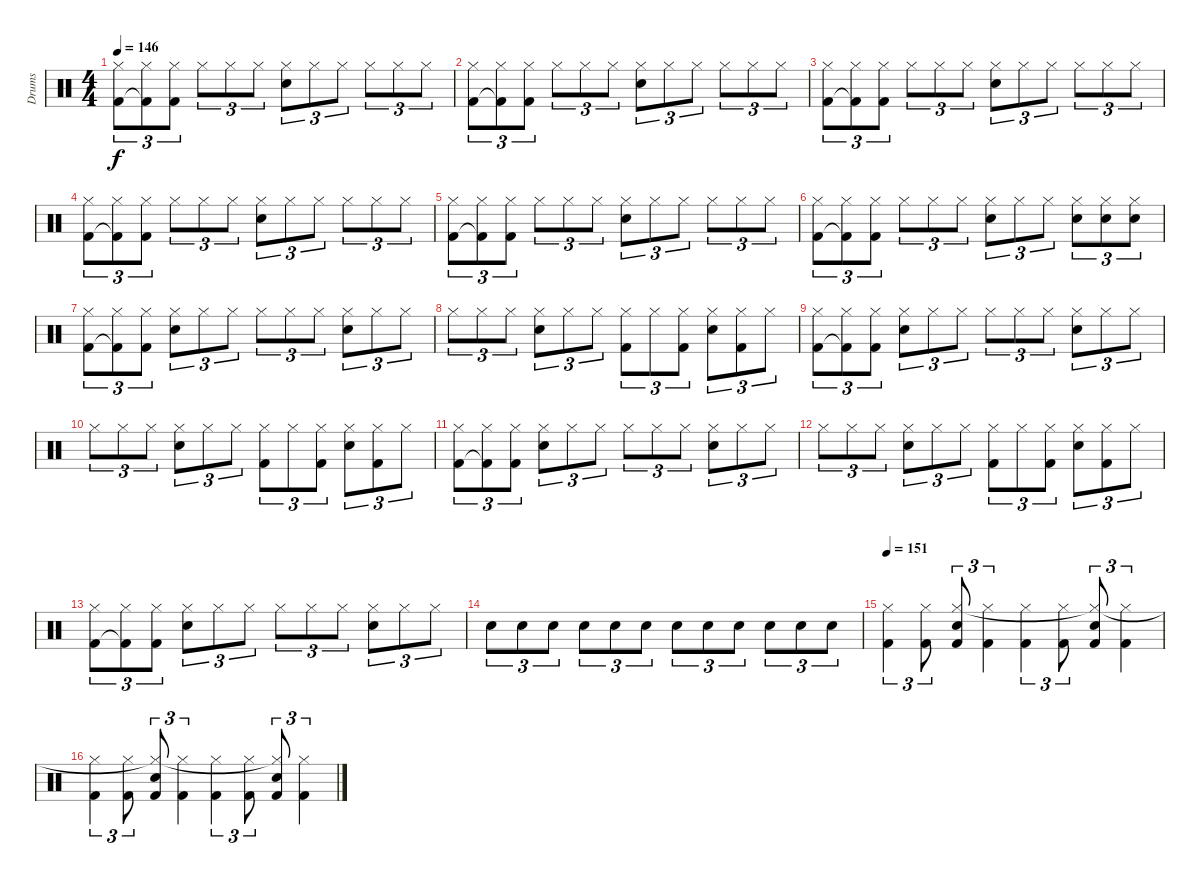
\track ("Drums" "Drums") {instrument percussion}
\staff {score}
\articulation defaults
\ts (4 4)
\tempo 146
\clef neutral
\ks c
("Kick (hit) 2" "Hi-Hat (closed)").8{tu (3 2) dy f} ("Kick (hit) 2"{t} "Hi-Hat (closed)").8{tu (3 2)} ("Kick (hit) 2" "Hi-Hat (closed)").8{tu (3 2)} "Hi-Hat (closed)".8{tu (3 2)} "Hi-Hat (closed)".8{tu (3 2)} "Hi-Hat (closed)".8{tu (3 2)} ("Electric Snare (hit)" "Hi-Hat (closed)").8{tu (3 2)} "Hi-Hat (closed)".8{tu (3 2)} "Hi-Hat (closed)".8{tu (3 2)} "Hi-Hat (closed)".8{tu (3 2)} "Hi-Hat (closed)".8{tu (3 2)} "Hi-Hat (closed)".8{tu (3 2)} |
("Kick (hit) 2" "Hi-Hat (closed)").8{tu (3 2)} ("Kick (hit) 2"{t} "Hi-Hat (closed)").8{tu (3 2)} ("Kick (hit) 2" "Hi-Hat (closed)").8{tu (3 2)} "Hi-Hat (closed)".8{tu (3 2)} "Hi-Hat (closed)".8{tu (3 2)} "Hi-Hat (closed)".8{tu (3 2)} ("Electric Snare (hit)" "Hi-Hat (closed)").8{tu (3 2)} "Hi-Hat (closed)".8{tu (3 2)} "Hi-Hat (closed)".8{tu (3 2)} "Hi-Hat (closed)".8{tu (3 2)} "Hi-Hat (closed)".8{tu (3 2)} "Hi-Hat (closed)".8{tu (3 2)} |
("Kick (hit) 2" "Hi-Hat (closed)").8{tu (3 2)} ("Kick (hit) 2"{t} "Hi-Hat (closed)").8{tu (3 2)} ("Kick (hit) 2" "Hi-Hat (closed)").8{tu (3 2)} "Hi-Hat (closed)".8{tu (3 2)} "Hi-Hat (closed)".8{tu (3 2)} "Hi-Hat (closed)".8{tu (3 2)} ("Electric Snare (hit)" "Hi-Hat (closed)").8{tu (3 2)} "Hi-Hat (closed)".8{tu (3 2)} "Hi-Hat (closed)".8{tu (3 2)} "Hi-Hat (closed)".8{tu (3 2)} "Hi-Hat (closed)".8{tu (3 2)} "Hi-Hat (closed)".8{tu (3 2)} |
("Kick (hit) 2" "Hi-Hat (closed)").8{tu (3 2)} ("Kick (hit) 2"{t} "Hi-Hat (closed)").8{tu (3 2)} ("Kick (hit) 2" "Hi-Hat (closed)").8{tu (3 2)} "Hi-Hat (closed)".8{tu (3 2)} "Hi-Hat (closed)".8{tu (3 2)} "Hi-Hat (closed)".8{tu (3 2)} ("Electric Snare (hit)" "Hi-Hat (closed)").8{tu (3 2)} "Hi-Hat (closed)".8{tu (3 2)} "Hi-Hat (closed)".8{tu (3 2)} "Hi-Hat (closed)".8{tu (3 2)} "Hi-Hat (closed)".8{tu (3 2)} "Hi-Hat (closed)".8{tu (3 2)} |
("Kick (hit) 2" "Hi-Hat (closed)").8{tu (3 2)} ("Kick (hit) 2"{t} "Hi-Hat (closed)").8{tu (3 2)} ("Kick (hit) 2" "Hi-Hat (closed)").8{tu (3 2)} "Hi-Hat (closed)".8{tu (3 2)} "Hi-Hat (closed)".8{tu (3 2)} "Hi-Hat (closed)".8{tu (3 2)} ("Electric Snare (hit)" "Hi-Hat (closed)").8{tu (3 2)} "Hi-Hat (closed)".8{tu (3 2)} "Hi-Hat (closed)".8{tu (3 2)} "Hi-Hat (closed)".8{tu (3 2)} "Hi-Hat (closed)".8{tu (3 2)} "Hi-Hat (closed)".8{tu (3 2)} |
("Kick (hit) 2" "Hi-Hat (closed)").8{tu (3 2)} ("Kick (hit) 2"{t} "Hi-Hat (closed)").8{tu (3 2)} ("Kick (hit) 2" "Hi-Hat (closed)").8{tu (3 2)} "Hi-Hat (closed)".8{tu (3 2)} "Hi-Hat (closed)".8{tu (3 2)} "Hi-Hat (closed)".8{tu (3 2)} ("Electric Snare (hit)" "Hi-Hat (closed)").8{tu (3 2)} "Hi-Hat (closed)".8{tu (3 2)} "Hi-Hat (closed)".8{tu (3 2)} ("Electric Snare (hit)" "Hi-Hat (closed)").8{tu (3 2)} ("Electric Snare (hit)" "Hi-Hat (closed)").8{tu (3 2)} ("Electric Snare (hit)" "Hi-Hat (closed)").8{tu (3 2)} |
("Kick (hit) 2" "Hi-Hat (closed)").8{tu (3 2)} ("Kick (hit) 2"{t} "Hi-Hat (closed)").8{tu (3 2)} ("Kick (hit) 2" "Hi-Hat (closed)").8{tu (3 2)} ("Electric Snare (hit)" "Hi-Hat (closed)").8{tu (3 2)} "Hi-Hat (closed)".8{tu (3 2)} "Hi-Hat (closed)".8{tu (3 2)} "Hi-Hat (closed)".8{tu (3 2)} "Hi-Hat (closed)".8{tu (3 2)} "Hi-Hat (closed)".8{tu (3 2)} ("Electric Snare (hit)" "Hi-Hat (closed)").8{tu (3 2)} "Hi-Hat (closed)".8{tu (3 2)} "Hi-Hat (closed)".8{tu (3 2)} |
"Hi-Hat (closed)".8{tu (3 2)} "Hi-Hat (closed)".8{tu (3 2)} "Hi-Hat (closed)".8{tu (3 2)} ("Electric Snare (hit)" "Hi-Hat (closed)").8{tu (3 2)} "Hi-Hat (closed)".8{tu (3 2)} "Hi-Hat (closed)".8{tu (3 2)} ("Kick (hit) 2" "Hi-Hat (closed)").8{tu (3 2)} "Hi-Hat (closed)".8{tu (3 2)} ("Kick (hit) 2" "Hi-Hat (closed)").8{tu (3 2)} ("Electric Snare (hit)" "Hi-Hat (closed)").8{tu (3 2)} ("Kick (hit) 2" "Hi-Hat (closed)").8{tu (3 2)} "Hi-Hat (closed)".8{tu (3 2)} |
("Kick (hit) 2" "Hi-Hat (closed)").8{tu (3 2)} ("Kick (hit) 2"{t} "Hi-Hat (closed)").8{tu (3 2)} ("Kick (hit) 2" "Hi-Hat (closed)").8{tu (3 2)} ("Electric Snare (hit)" "Hi-Hat (closed)").8{tu (3 2)} "Hi-Hat (closed)".8{tu (3 2)} "Hi-Hat (closed)".8{tu (3 2)} "Hi-Hat (closed)".8{tu (3 2)} "Hi-Hat (closed)".8{tu (3 2)} "Hi-Hat (closed)".8{tu (3 2)} ("Electric Snare (hit)" "Hi-Hat (closed)").8{tu (3 2)} "Hi-Hat (closed)".8{tu (3 2)} "Hi-Hat (closed)".8{tu (3 2)} |
"Hi-Hat (closed)".8{tu (3 2)} "Hi-Hat (closed)".8{tu (3 2)} "Hi-Hat (closed)".8{tu (3 2)} ("Electric Snare (hit)" "Hi-Hat (closed)").8{tu (3 2)} "Hi-Hat (closed)".8{tu (3 2)} "Hi-Hat (closed)".8{tu (3 2)} ("Kick (hit) 2" "Hi-Hat (closed)").8{tu (3 2)} "Hi-Hat (closed)".8{tu (3 2)} ("Kick (hit) 2" "Hi-Hat (closed)").8{tu (3 2)} ("Electric Snare (hit)" "Hi-Hat (closed)").8{tu (3 2)} ("Kick (hit) 2" "Hi-Hat (closed)").8{tu (3 2)} "Hi-Hat (closed)".8{tu (3 2)} |
("Kick (hit) 2" "Hi-Hat (closed)").8{tu (3 2)} ("Kick (hit) 2"{t} "Hi-Hat (closed)").8{tu (3 2)} ("Kick (hit) 2" "Hi-Hat (closed)").8{tu (3 2)} ("Electric Snare (hit)" "Hi-Hat (closed)").8{tu (3 2)} "Hi-Hat (closed)".8{tu (3 2)} "Hi-Hat (closed)".8{tu (3 2)} "Hi-Hat (closed)".8{tu (3 2)} "Hi-Hat (closed)".8{tu (3 2)} "Hi-Hat (closed)".8{tu (3 2)} ("Electric Snare (hit)" "Hi-Hat (closed)").8{tu (3 2)} "Hi-Hat (closed)".8{tu (3 2)} "Hi-Hat (closed)".8{tu (3 2)} |
"Hi-Hat (closed)".8{tu (3 2)} "Hi-Hat (closed)".8{tu (3 2)} "Hi-Hat (closed)".8{tu (3 2)} ("Electric Snare (hit)" "Hi-Hat (closed)").8{tu (3 2)} "Hi-Hat (closed)".8{tu (3 2)} "Hi-Hat (closed)".8{tu (3 2)} ("Kick (hit) 2" "Hi-Hat (closed)").8{tu (3 2)} "Hi-Hat (closed)".8{tu (3 2)} ("Kick (hit) 2" "Hi-Hat (closed)").8{tu (3 2)} ("Electric Snare (hit)" "Hi-Hat (closed)").8{tu (3 2)} ("Kick (hit) 2" "Hi-Hat (closed)").8{tu (3 2)} "Hi-Hat (closed)".8{tu (3 2)} |
("Kick (hit) 2" "Hi-Hat (closed)").8{tu (3 2)} ("Kick (hit) 2"{t} "Hi-Hat (closed)").8{tu (3 2)} ("Kick (hit) 2" "Hi-Hat (closed)").8{tu (3 2)} ("Electric Snare (hit)" "Hi-Hat (closed)").8{tu (3 2)} "Hi-Hat (closed)".8{tu (3 2)} "Hi-Hat (closed)".8{tu (3 2)} "Hi-Hat (closed)".8{tu (3 2)} "Hi-Hat (closed)".8{tu (3 2)} "Hi-Hat (closed)".8{tu (3 2)} ("Electric Snare (hit)" "Hi-Hat (closed)").8{tu (3 2)} "Hi-Hat (closed)".8{tu (3 2)} "Hi-Hat (closed)".8{tu (3 2)} |
"Electric Snare (hit)".8{tu (3 2)} "Electric Snare (hit)".8{tu (3 2)} "Electric Snare (hit)".8{tu (3 2)} "Electric Snare (hit)".8{tu (3 2)} "Electric Snare (hit)".8{tu (3 2)} "Electric Snare (hit)".8{tu (3 2)} "Electric Snare (hit)".8{tu (3 2)} "Electric Snare (hit)".8{tu (3 2)} "Electric Snare (hit)".8{tu (3 2)} "Electric Snare (hit)".8{tu (3 2)} "Electric Snare (hit)".8{tu (3 2)} "Electric Snare (hit)".8{tu (3 2)} |
\tempo 151
("Kick (hit) 2" "Hi-Hat (closed)").4{tu (3 2)} ("Kick (hit) 2" "Hi-Hat (closed)").8{tu (3 2)} ("Electric Snare (hit)" "Kick (hit) 2" "Hi-Hat (closed)").8{tu (3 2)} ("Kick (hit) 2" "Hi-Hat (closed)").4{tu (3 2)} ("Kick (hit) 2" "Hi-Hat (closed)").4{tu (3 2)} ("Kick (hit) 2" "Hi-Hat (closed)").8{tu (3 2)} ("Electric Snare (hit)" "Kick (hit) 2" "Hi-Hat (closed)"{t}).8{tu (3 2)} ("Kick (hit) 2" "Hi-Hat (closed)").4{tu (3 2)} |
("Kick (hit) 2" "Hi-Hat (closed)").4{tu (3 2)} ("Kick (hit) 2" "Hi-Hat (closed)").8{tu (3 2)} ("Electric Snare (hit)" "Kick (hit) 2" "Hi-Hat (closed)"{t}).8{tu (3 2)} ("Kick (hit) 2" "Hi-Hat (closed)").4{tu (3 2)} ("Kick (hit) 2" "Hi-Hat (closed)").4{tu (3 2)} ("Kick (hit) 2" "Hi-Hat (closed)").8{tu (3 2)} ("Electric Snare (hit)" "Kick (hit) 2" "Hi-Hat (closed)"{t}).8{tu (3 2)} ("Kick (hit) 2" "Hi-Hat (closed)").4{tu (3 2)}
